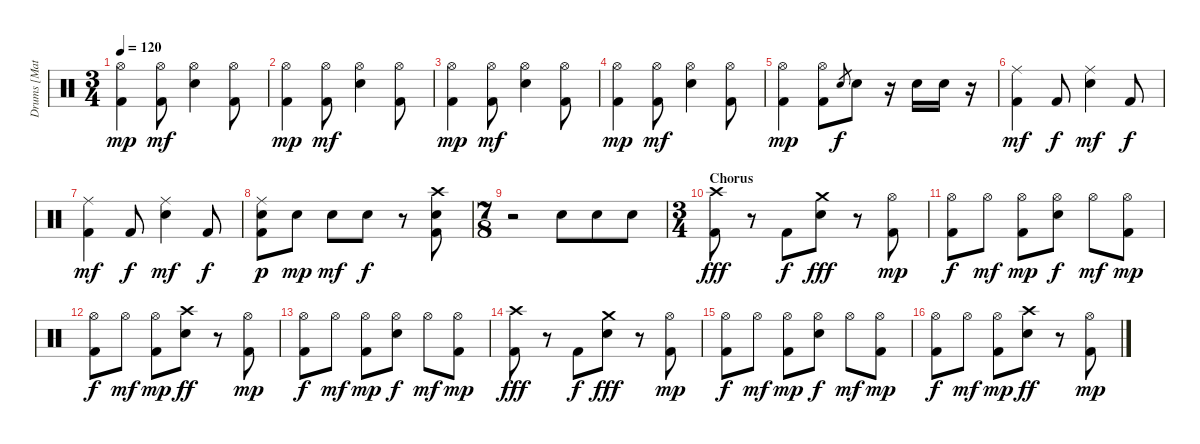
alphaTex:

\track ("Drums [Matt]" "Drums [Mat") {instrument percussion}
\staff {score}
\articulation defaults
\ts (3 4)
\tempo 120
\clef neutral
\ks c
("Hi-Hat (open)" "Kick (hit) 2").4{dy mp} ("Hi-Hat (open)" "Kick (hit) 2").8{dy mf} ("Hi-Hat (open)" "Snare (hit) 2").4 ("Hi-Hat (open)" "Kick (hit) 2").8 |
("Hi-Hat (open)" "Kick (hit) 2").4{dy mp} ("Hi-Hat (open)" "Kick (hit) 2").8{dy mf} ("Hi-Hat (open)" "Snare (hit) 2").4 ("Hi-Hat (open)" "Kick (hit) 2").8 |
("Hi-Hat (open)" "Kick (hit) 2").4{dy mp} ("Hi-Hat (open)" "Kick (hit) 2").8{dy mf} ("Hi-Hat (open)" "Snare (hit) 2").4 ("Hi-Hat (open)" "Kick (hit) 2").8 |
("Hi-Hat (open)" "Kick (hit) 2").4{dy mp} ("Hi-Hat (open)" "Kick (hit) 2").8{dy mf} ("Hi-Hat (open)" "Snare (hit) 2").4 ("Hi-Hat (open)" "Kick (hit) 2").8 |
("Hi-Hat (open)" "Kick (hit) 2").4{dy mp} ("Hi-Hat (open)" "Kick (hit) 2").8 "Snare (hit) 2".8{gr dy f} "Snare (hit) 2".8 r.16 "Snare (hit) 2".16 "Snare (hit) 2".16 r.16 |
("Ride (middle)" "Kick (hit) 2").4{dy mf} "Kick (hit) 2".8{dy f} ("Ride (middle)" "Snare (hit) 2").4{dy mf} "Kick (hit) 2".8{dy f} |
("Ride (middle)" "Kick (hit) 2").4{dy mf} "Kick (hit) 2".8{dy f} ("Ride (middle)" "Snare (hit) 2").4{dy mf} "Kick (hit) 2".8{dy f} |
("Ride (middle)" "Snare (hit) 2" "Kick (hit) 2").8{dy p} "Snare (hit) 2".8{dy mp} "Snare (hit) 2".8{dy mf} "Snare (hit) 2".8{dy f} r.8 ("Crash high (hit)" "Snare (hit) 2" "Kick (hit) 2").8 |
\ts (7 8)
r.2 "Snare (hit) 2".8 "Snare (hit) 2".8 "Snare (hit) 2".8 |
\ts (3 4)
\section ("" "Chorus")
("Crash high (hit)" "Kick (hit) 2").8{dy fff} r.8 "Kick (hit) 2".8{dy f} ("Crash medium (hit)" "Snare (hit) 2").8{dy fff} r.8 ("Hi-Hat (open)" "Kick (hit) 2").8{dy mp} |
("Hi-Hat (open)" "Kick (hit) 2").8{dy f} "Hi-Hat (open)".8{dy mf} ("Hi-Hat (open)" "Kick (hit) 2").8{dy mp} ("Hi-Hat (open)" "Snare (hit) 2").8{dy f} "Hi-Hat (open)".8{dy mf} ("Hi-Hat (open)" "Kick (hit) 2").8{dy mp} |
("Hi-Hat (open)" "Kick (hit) 2").8{dy f} "Hi-Hat (open)".8{dy mf} ("Hi-Hat (open)" "Kick (hit) 2").8{dy mp} ("Crash high (hit)" "Snare (hit) 2").8{dy ff} r.8 ("Hi-Hat (open)" "Kick (hit) 2").8{dy mp} |
("Hi-Hat (open)" "Kick (hit) 2").8{dy f} "Hi-Hat (open)".8{dy mf} ("Hi-Hat (open)" "Kick (hit) 2").8{dy mp} ("Hi-Hat (open)" "Snare (hit) 2").8{dy f} "Hi-Hat (open)".8{dy mf} ("Hi-Hat (open)" "Kick (hit) 2").8{dy mp} |
("Crash high (hit)" "Kick (hit) 2").8{dy fff} r.8 "Kick (hit) 2".8{dy f} ("Crash medium (hit)" "Snare (hit) 2").8{dy fff} r.8 ("Hi-Hat (open)" "Kick (hit) 2").8{dy mp} |
("Hi-Hat (open)" "Kick (hit) 2").8{dy f} "Hi-Hat (open)".8{dy mf} ("Hi-Hat (open)" "Kick (hit) 2").8{dy mp} ("Hi-Hat (open)" "Snare (hit) 2").8{dy f} "Hi-Hat (open)".8{dy mf} ("Hi-Hat (open)" "Kick (hit) 2").8{dy mp} |
("Hi-Hat (open)" "Kick (hit) 2").8{dy f} "Hi-Hat (open)".8{dy mf} ("Hi-Hat (open)" "Kick (hit) 2").8{dy mp} ("Crash high (hit)" "Snare (hit) 2").8{dy ff} r.8 ("Hi-Hat (open)" "Kick (hit) 2").8{dy mp}
